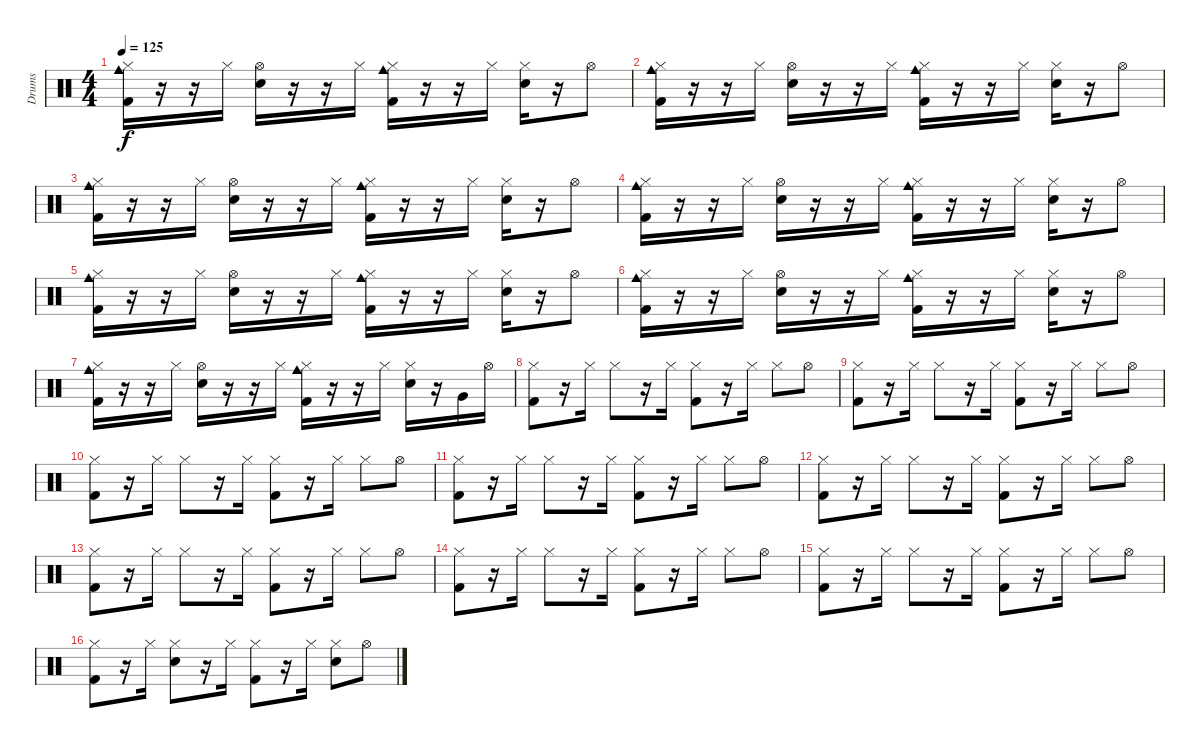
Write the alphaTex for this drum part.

\track ("Drums" "Drums") {instrument percussion}
\staff {score}
\articulation defaults
\ts (4 4)
\tempo 125
\clef neutral
\ks c
("Cowbell medium (hit)" "Hi-Hat (closed)" "Kick (hit) 2").16{dy f} r.16 r.16 "Hi-Hat (closed)".16 ("Hi-Hat (open)" "Electric Snare (hit)").16 r.16 r.16 "Hi-Hat (closed)".16 ("Cowbell medium (hit)" "Hi-Hat (closed)" "Kick (hit) 2").16 r.16 r.16 "Hi-Hat (closed)".16 ("Hi-Hat (closed)" "Electric Snare (hit)").16 r.16 "Hi-Hat (open)".8 |
("Cowbell medium (hit)" "Hi-Hat (closed)" "Kick (hit) 2").16 r.16 r.16 "Hi-Hat (closed)".16 ("Hi-Hat (open)" "Electric Snare (hit)").16 r.16 r.16 "Hi-Hat (closed)".16 ("Cowbell medium (hit)" "Hi-Hat (closed)" "Kick (hit) 2").16 r.16 r.16 "Hi-Hat (closed)".16 ("Hi-Hat (closed)" "Electric Snare (hit)").16 r.16 "Hi-Hat (open)".8 |
("Cowbell medium (hit)" "Hi-Hat (closed)" "Kick (hit) 2").16 r.16 r.16 "Hi-Hat (closed)".16 ("Hi-Hat (open)" "Electric Snare (hit)").16 r.16 r.16 "Hi-Hat (closed)".16 ("Cowbell medium (hit)" "Hi-Hat (closed)" "Kick (hit) 2").16 r.16 r.16 "Hi-Hat (closed)".16 ("Hi-Hat (closed)" "Electric Snare (hit)").16 r.16 "Hi-Hat (open)".8 |
("Cowbell medium (hit)" "Hi-Hat (closed)" "Kick (hit) 2").16 r.16 r.16 "Hi-Hat (closed)".16 ("Hi-Hat (open)" "Electric Snare (hit)").16 r.16 r.16 "Hi-Hat (closed)".16 ("Cowbell medium (hit)" "Hi-Hat (closed)" "Kick (hit) 2").16 r.16 r.16 "Hi-Hat (closed)".16 ("Hi-Hat (closed)" "Electric Snare (hit)").16 r.16 "Hi-Hat (open)".8 |
("Cowbell medium (hit)" "Hi-Hat (closed)" "Kick (hit) 2").16 r.16 r.16 "Hi-Hat (closed)".16 ("Hi-Hat (open)" "Electric Snare (hit)").16 r.16 r.16 "Hi-Hat (closed)".16 ("Cowbell medium (hit)" "Hi-Hat (closed)" "Kick (hit) 2").16 r.16 r.16 "Hi-Hat (closed)".16 ("Hi-Hat (closed)" "Electric Snare (hit)").16 r.16 "Hi-Hat (open)".8 |
("Cowbell medium (hit)" "Hi-Hat (closed)" "Kick (hit) 2").16 r.16 r.16 "Hi-Hat (closed)".16 ("Hi-Hat (open)" "Electric Snare (hit)").16 r.16 r.16 "Hi-Hat (closed)".16 ("Cowbell medium (hit)" "Hi-Hat (closed)" "Kick (hit) 2").16 r.16 r.16 "Hi-Hat (closed)".16 ("Hi-Hat (closed)" "Electric Snare (hit)").16 r.16 "Hi-Hat (open)".8 |
("Cowbell medium (hit)" "Hi-Hat (closed)" "Kick (hit) 2").16 r.16 r.16 "Hi-Hat (closed)".16 ("Hi-Hat (open)" "Electric Snare (hit)").16 r.16 r.16 "Hi-Hat (closed)".16 ("Cowbell medium (hit)" "Hi-Hat (closed)" "Kick (hit) 2").16 r.16 r.16 "Hi-Hat (closed)".16 ("Hi-Hat (closed)" "Electric Snare (hit)").16 r.16 "Very Low Tom (hit)".16 "Hi-Hat (open)".16 |
("Hi-Hat (closed)" "Kick (hit) 2").8 r.16 "Hi-Hat (closed)".16 "Hi-Hat (closed)".8 r.16 "Hi-Hat (closed)".16 ("Hi-Hat (closed)" "Kick (hit) 2").8 r.16 "Hi-Hat (closed)".16 "Hi-Hat (closed)".8 "Hi-Hat (open)".8 |
("Hi-Hat (closed)" "Kick (hit) 2").8 r.16 "Hi-Hat (closed)".16 "Hi-Hat (closed)".8 r.16 "Hi-Hat (closed)".16 ("Hi-Hat (closed)" "Kick (hit) 2").8 r.16 "Hi-Hat (closed)".16 "Hi-Hat (closed)".8 "Hi-Hat (open)".8 |
("Hi-Hat (closed)" "Kick (hit) 2").8 r.16 "Hi-Hat (closed)".16 "Hi-Hat (closed)".8 r.16 "Hi-Hat (closed)".16 ("Hi-Hat (closed)" "Kick (hit) 2").8 r.16 "Hi-Hat (closed)".16 "Hi-Hat (closed)".8 "Hi-Hat (open)".8 |
("Hi-Hat (closed)" "Kick (hit) 2").8 r.16 "Hi-Hat (closed)".16 "Hi-Hat (closed)".8 r.16 "Hi-Hat (closed)".16 ("Hi-Hat (closed)" "Kick (hit) 2").8 r.16 "Hi-Hat (closed)".16 "Hi-Hat (closed)".8 "Hi-Hat (open)".8 |
("Hi-Hat (closed)" "Kick (hit) 2").8 r.16 "Hi-Hat (closed)".16 "Hi-Hat (closed)".8 r.16 "Hi-Hat (closed)".16 ("Hi-Hat (closed)" "Kick (hit) 2").8 r.16 "Hi-Hat (closed)".16 "Hi-Hat (closed)".8 "Hi-Hat (open)".8 |
("Hi-Hat (closed)" "Kick (hit) 2").8 r.16 "Hi-Hat (closed)".16 "Hi-Hat (closed)".8 r.16 "Hi-Hat (closed)".16 ("Hi-Hat (closed)" "Kick (hit) 2").8 r.16 "Hi-Hat (closed)".16 "Hi-Hat (closed)".8 "Hi-Hat (open)".8 |
("Hi-Hat (closed)" "Kick (hit) 2").8 r.16 "Hi-Hat (closed)".16 "Hi-Hat (closed)".8 r.16 "Hi-Hat (closed)".16 ("Hi-Hat (closed)" "Kick (hit) 2").8 r.16 "Hi-Hat (closed)".16 "Hi-Hat (closed)".8 "Hi-Hat (open)".8 |
("Hi-Hat (closed)" "Kick (hit) 2").8 r.16 "Hi-Hat (closed)".16 "Hi-Hat (closed)".8 r.16 "Hi-Hat (closed)".16 ("Hi-Hat (closed)" "Kick (hit) 2").8 r.16 "Hi-Hat (closed)".16 "Hi-Hat (closed)".8 "Hi-Hat (open)".8 |
("Hi-Hat (closed)" "Kick (hit) 2").8 r.16 "Hi-Hat (closed)".16 ("Hi-Hat (closed)" "Electric Snare (hit)").8 r.16 "Hi-Hat (closed)".16 ("Hi-Hat (closed)" "Kick (hit) 2").8 r.16 "Hi-Hat (closed)".16 ("Hi-Hat (closed)" "Electric Snare (hit)").8 "Hi-Hat (open)".8
